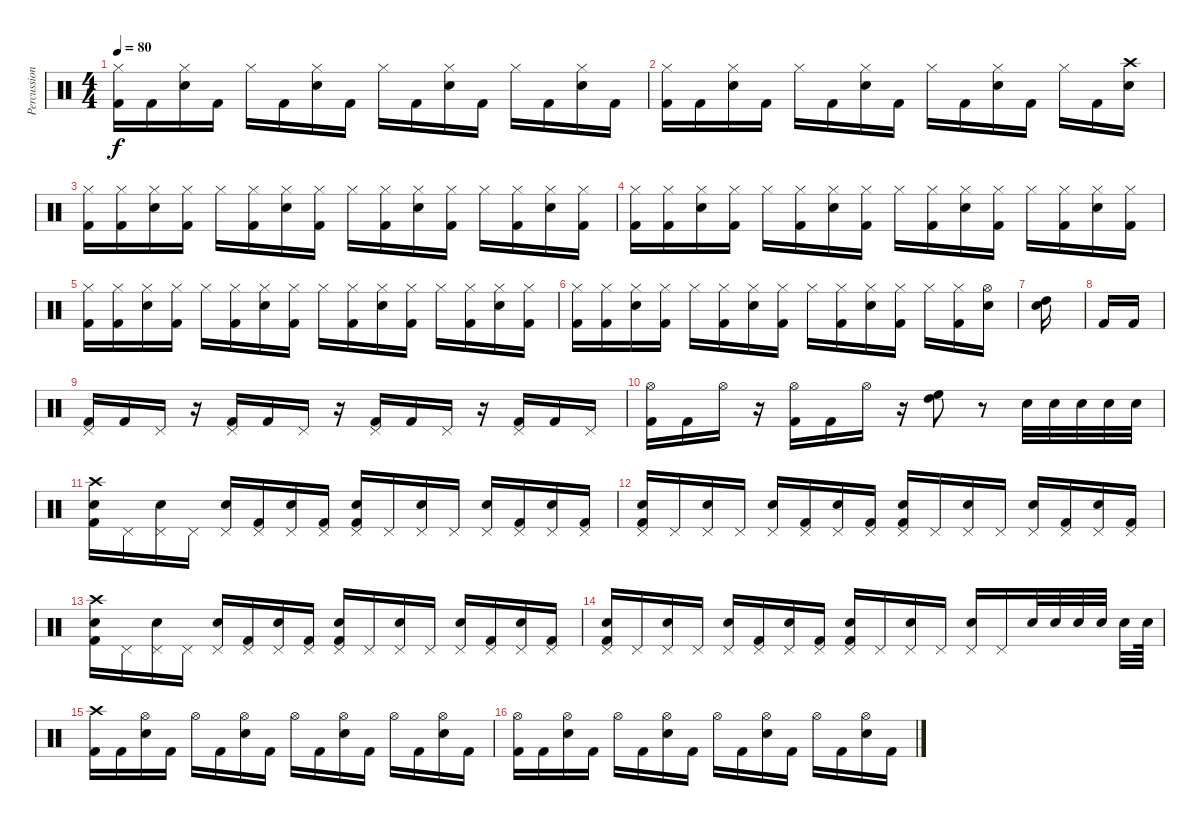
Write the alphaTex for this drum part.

\track ("Percussion" "Percussion") {instrument percussion}
\staff {score}
\articulation defaults
\ts (4 4)
\tempo 80
\clef neutral
\ks c
("Hi-Hat (closed)" "Kick (hit) 2").16{dy f} "Kick (hit) 2".16 ("Hi-Hat (closed)" "Electric Snare (hit)").16 "Kick (hit) 2".16 "Hi-Hat (closed)".16 "Kick (hit) 2".16 ("Hi-Hat (closed)" "Electric Snare (hit)").16 "Kick (hit) 2".16 "Hi-Hat (closed)".16 "Kick (hit) 2".16 ("Hi-Hat (closed)" "Electric Snare (hit)").16 "Kick (hit) 2".16 "Hi-Hat (closed)".16 "Kick (hit) 2".16 ("Hi-Hat (closed)" "Electric Snare (hit)").16 "Kick (hit) 2".16 |
("Hi-Hat (closed)" "Kick (hit) 2").16 "Kick (hit) 2".16 ("Hi-Hat (closed)" "Electric Snare (hit)").16 "Kick (hit) 2".16 "Hi-Hat (closed)".16 "Kick (hit) 2".16 ("Hi-Hat (closed)" "Electric Snare (hit)").16 "Kick (hit) 2".16 "Hi-Hat (closed)".16 "Kick (hit) 2".16 ("Hi-Hat (closed)" "Electric Snare (hit)").16 "Kick (hit) 2".16 "Hi-Hat (closed)".16 "Kick (hit) 2".16 ("Crash high (hit)" "Electric Snare (hit)").16 |
("Hi-Hat (closed)" "Kick (hit) 2").16 ("Hi-Hat (closed)" "Kick (hit) 2").16 ("Hi-Hat (closed)" "Electric Snare (hit)").16 ("Hi-Hat (closed)" "Kick (hit) 2").16 "Hi-Hat (closed)".16 ("Hi-Hat (closed)" "Kick (hit) 2").16 ("Hi-Hat (closed)" "Electric Snare (hit)").16 ("Hi-Hat (closed)" "Kick (hit) 2").16 "Hi-Hat (closed)".16 ("Hi-Hat (closed)" "Kick (hit) 2").16 ("Hi-Hat (closed)" "Electric Snare (hit)").16 ("Hi-Hat (closed)" "Kick (hit) 2").16 "Hi-Hat (closed)".16 ("Hi-Hat (closed)" "Kick (hit) 2").16 ("Hi-Hat (closed)" "Electric Snare (hit)").16 ("Hi-Hat (closed)" "Kick (hit) 2").16 |
("Hi-Hat (closed)" "Kick (hit) 2").16 ("Hi-Hat (closed)" "Kick (hit) 2").16 ("Hi-Hat (closed)" "Electric Snare (hit)").16 ("Hi-Hat (closed)" "Kick (hit) 2").16 "Hi-Hat (closed)".16 ("Hi-Hat (closed)" "Kick (hit) 2").16 ("Hi-Hat (closed)" "Electric Snare (hit)").16 ("Hi-Hat (closed)" "Kick (hit) 2").16 "Hi-Hat (closed)".16 ("Hi-Hat (closed)" "Kick (hit) 2").16 ("Hi-Hat (closed)" "Electric Snare (hit)").16 ("Hi-Hat (closed)" "Kick (hit) 2").16 "Hi-Hat (closed)".16 ("Hi-Hat (closed)" "Kick (hit) 2").16 ("Hi-Hat (closed)" "Electric Snare (hit)").16 ("Hi-Hat (closed)" "Kick (hit) 2").16 |
("Hi-Hat (closed)" "Kick (hit) 2").16 ("Hi-Hat (closed)" "Kick (hit) 2").16 ("Hi-Hat (closed)" "Electric Snare (hit)").16 ("Hi-Hat (closed)" "Kick (hit) 2").16 "Hi-Hat (closed)".16 ("Hi-Hat (closed)" "Kick (hit) 2").16 ("Hi-Hat (closed)" "Electric Snare (hit)").16 ("Hi-Hat (closed)" "Kick (hit) 2").16 "Hi-Hat (closed)".16 ("Hi-Hat (closed)" "Kick (hit) 2").16 ("Hi-Hat (closed)" "Electric Snare (hit)").16 ("Hi-Hat (closed)" "Kick (hit) 2").16 "Hi-Hat (closed)".16 ("Hi-Hat (closed)" "Kick (hit) 2").16 ("Hi-Hat (closed)" "Electric Snare (hit)").16 ("Hi-Hat (closed)" "Kick (hit) 2").16 |
("Hi-Hat (closed)" "Kick (hit) 2").16 ("Hi-Hat (closed)" "Kick (hit) 2").16 ("Hi-Hat (closed)" "Electric Snare (hit)").16 ("Hi-Hat (closed)" "Kick (hit) 2").16 "Hi-Hat (closed)".16 ("Hi-Hat (closed)" "Kick (hit) 2").16 ("Hi-Hat (closed)" "Electric Snare (hit)").16 ("Hi-Hat (closed)" "Kick (hit) 2").16 "Hi-Hat (closed)".16 ("Hi-Hat (closed)" "Kick (hit) 2").16 ("Hi-Hat (closed)" "Electric Snare (hit)").16 ("Hi-Hat (closed)" "Kick (hit) 2").16 "Hi-Hat (closed)".16 ("Hi-Hat (closed)" "Kick (hit) 2").16 ("Hi-Hat (open)" "Electric Snare (hit)").16 |
("Electric Snare (hit)" "High Tom (hit)").16 |
"Kick (hit) 2".16 "Kick (hit) 2".16 |
("Pedal Hi-Hat (hit)" "Kick (hit) 2").16 "Kick (hit) 2".16 "Pedal Hi-Hat (hit)".16 r.16 ("Pedal Hi-Hat (hit)" "Kick (hit) 2").16 "Kick (hit) 2".16 "Pedal Hi-Hat (hit)".16 r.16 ("Pedal Hi-Hat (hit)" "Kick (hit) 2").16 "Kick (hit) 2".16 "Pedal Hi-Hat (hit)".16 r.16 ("Pedal Hi-Hat (hit)" "Kick (hit) 2").16 "Kick (hit) 2".16 "Pedal Hi-Hat (hit)".16 |
("Hi-Hat (open)" "Kick (hit) 2").16 "Kick (hit) 2".16 "Hi-Hat (open)".16 r.16 ("Hi-Hat (open)" "Kick (hit) 2").16 "Kick (hit) 2".16 "Hi-Hat (open)".16 r.16 ("High Floor Tom (hit)" "High Tom (hit)").8 r.8 "Electric Snare (hit)".32 "Electric Snare (hit)".32 "Electric Snare (hit)".32 "Electric Snare (hit)".32 "Electric Snare (hit)".32 |
("Crash high (hit)" "Electric Snare (hit)" "Kick (hit) 2").16 "Pedal Hi-Hat (hit)".16 ("Pedal Hi-Hat (hit)" "Electric Snare (hit)").16 "Pedal Hi-Hat (hit)".16 ("Pedal Hi-Hat (hit)" "Electric Snare (hit)").16 ("Pedal Hi-Hat (hit)" "Kick (hit) 2").16 ("Pedal Hi-Hat (hit)" "Electric Snare (hit)").16 ("Pedal Hi-Hat (hit)" "Kick (hit) 2").16 ("Pedal Hi-Hat (hit)" "Electric Snare (hit)" "Kick (hit) 2").16 "Pedal Hi-Hat (hit)".16 ("Pedal Hi-Hat (hit)" "Electric Snare (hit)").16 "Pedal Hi-Hat (hit)".16 ("Pedal Hi-Hat (hit)" "Electric Snare (hit)").16 ("Pedal Hi-Hat (hit)" "Kick (hit) 2").16 ("Pedal Hi-Hat (hit)" "Electric Snare (hit)").16 ("Pedal Hi-Hat (hit)" "Kick (hit) 2").16 |
("Pedal Hi-Hat (hit)" "Electric Snare (hit)" "Kick (hit) 2").16 "Pedal Hi-Hat (hit)".16 ("Pedal Hi-Hat (hit)" "Electric Snare (hit)").16 "Pedal Hi-Hat (hit)".16 ("Pedal Hi-Hat (hit)" "Electric Snare (hit)").16 ("Pedal Hi-Hat (hit)" "Kick (hit) 2").16 ("Pedal Hi-Hat (hit)" "Electric Snare (hit)").16 ("Pedal Hi-Hat (hit)" "Kick (hit) 2").16 ("Pedal Hi-Hat (hit)" "Electric Snare (hit)" "Kick (hit) 2").16 "Pedal Hi-Hat (hit)".16 ("Pedal Hi-Hat (hit)" "Electric Snare (hit)").16 "Pedal Hi-Hat (hit)".16 ("Pedal Hi-Hat (hit)" "Electric Snare (hit)").16 ("Pedal Hi-Hat (hit)" "Kick (hit) 2").16 ("Pedal Hi-Hat (hit)" "Electric Snare (hit)").16 ("Pedal Hi-Hat (hit)" "Kick (hit) 2").16 |
("Crash high (hit)" "Electric Snare (hit)" "Kick (hit) 2").16 "Pedal Hi-Hat (hit)".16 ("Pedal Hi-Hat (hit)" "Electric Snare (hit)").16 "Pedal Hi-Hat (hit)".16 ("Pedal Hi-Hat (hit)" "Electric Snare (hit)").16 ("Pedal Hi-Hat (hit)" "Kick (hit) 2").16 ("Pedal Hi-Hat (hit)" "Electric Snare (hit)").16 ("Pedal Hi-Hat (hit)" "Kick (hit) 2").16 ("Pedal Hi-Hat (hit)" "Electric Snare (hit)" "Kick (hit) 2").16 "Pedal Hi-Hat (hit)".16 ("Pedal Hi-Hat (hit)" "Electric Snare (hit)").16 "Pedal Hi-Hat (hit)".16 ("Pedal Hi-Hat (hit)" "Electric Snare (hit)").16 ("Pedal Hi-Hat (hit)" "Kick (hit) 2").16 ("Pedal Hi-Hat (hit)" "Electric Snare (hit)").16 ("Pedal Hi-Hat (hit)" "Kick (hit) 2").16 |
("Pedal Hi-Hat (hit)" "Electric Snare (hit)" "Kick (hit) 2").16 "Pedal Hi-Hat (hit)".16 ("Pedal Hi-Hat (hit)" "Electric Snare (hit)").16 "Pedal Hi-Hat (hit)".16 ("Pedal Hi-Hat (hit)" "Electric Snare (hit)").16 ("Pedal Hi-Hat (hit)" "Kick (hit) 2").16 ("Pedal Hi-Hat (hit)" "Electric Snare (hit)").16 ("Pedal Hi-Hat (hit)" "Kick (hit) 2").16 ("Pedal Hi-Hat (hit)" "Electric Snare (hit)" "Kick (hit) 2").16 "Pedal Hi-Hat (hit)".16 ("Pedal Hi-Hat (hit)" "Electric Snare (hit)").16 "Pedal Hi-Hat (hit)".16 ("Pedal Hi-Hat (hit)" "Electric Snare (hit)").16 "Pedal Hi-Hat (hit)".16 "Electric Snare (hit)".32 "Electric Snare (hit)".32 "Electric Snare (hit)".32 "Electric Snare (hit)".32 "Electric Snare (hit)".32 "Electric Snare (hit)".64 |
("Crash high (hit)" "Kick (hit) 2").16 "Kick (hit) 2".16 ("Hi-Hat (open)" "Electric Snare (hit)").16 "Kick (hit) 2".16 "Hi-Hat (open)".16 "Kick (hit) 2".16 ("Hi-Hat (open)" "Electric Snare (hit)").16 "Kick (hit) 2".16 "Hi-Hat (open)".16 "Kick (hit) 2".16 ("Hi-Hat (open)" "Electric Snare (hit)").16 "Kick (hit) 2".16 "Hi-Hat (open)".16 "Kick (hit) 2".16 ("Hi-Hat (open)" "Electric Snare (hit)").16 "Kick (hit) 2".16 |
("Hi-Hat (open)" "Kick (hit) 2").16 "Kick (hit) 2".16 ("Hi-Hat (open)" "Electric Snare (hit)").16 "Kick (hit) 2".16 "Hi-Hat (open)".16 "Kick (hit) 2".16 ("Hi-Hat (open)" "Electric Snare (hit)").16 "Kick (hit) 2".16 "Hi-Hat (open)".16 "Kick (hit) 2".16 ("Hi-Hat (open)" "Electric Snare (hit)").16 "Kick (hit) 2".16 "Hi-Hat (open)".16 "Kick (hit) 2".16 ("Hi-Hat (open)" "Electric Snare (hit)").16 "Kick (hit) 2".16
